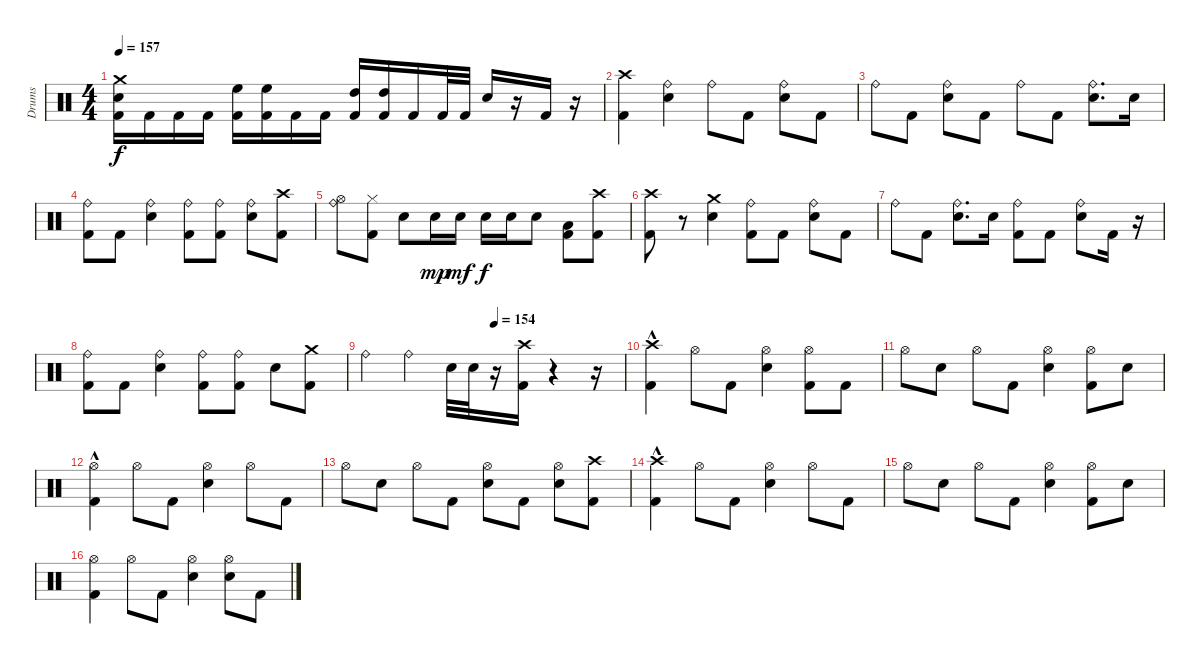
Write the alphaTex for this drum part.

\track ("Drums" "Drums") {instrument percussion}
\staff {score}
\articulation defaults
\ts (4 4)
\tempo 157
\clef neutral
\ks c
("Kick (hit) 2" "Electric Snare (hit)" "Crash medium (hit)").16{dy f} "Kick (hit) 2".16 "Kick (hit) 2".16 "Kick (hit) 2".16 ("Kick (hit) 2" "High Floor Tom (hit)").16 ("Kick (hit) 2" "High Floor Tom (hit)").16 "Kick (hit) 2".16 "Kick (hit) 2".16 ("Kick (hit) 2" "High Tom (hit)").16 ("Kick (hit) 2" "High Tom (hit)").16 "Kick (hit) 2".16 "Kick (hit) 2".32 "Kick (hit) 2".32 "Electric Snare (hit)".16 r.16 "Kick (hit) 2".16 r.16 |
("Kick (hit) 2" "Crash high (hit)").4 ("Electric Snare (hit)" "Ride (bell)").4 "Ride (bell)".8 "Kick (hit) 2".8 ("Electric Snare (hit)" "Ride (bell)").8 "Kick (hit) 2".8 |
"Ride (bell)".8 "Kick (hit) 2".8 ("Electric Snare (hit)" "Ride (bell)").8 "Kick (hit) 2".8 "Ride (bell)".8 "Kick (hit) 2".8 ("Electric Snare (hit)" "Ride (bell)").8{d} "Electric Snare (hit)".16 |
("Kick (hit) 2" "Ride (bell)").8 "Kick (hit) 2".8 ("Electric Snare (hit)" "Ride (bell)").4 ("Kick (hit) 2" "Ride (bell)").8 ("Kick (hit) 2" "Ride (bell)").8 ("Ride (bell)" "Electric Snare (hit)").8 ("Crash high (hit)" "Kick (hit) 2").8 |
("Ride (bell)" "Hi-Hat (open)").8 ("Kick (hit) 2" "Hi-Hat (closed)").8 "Electric Snare (hit)".8 "Electric Snare (hit)".16{dy mp} "Electric Snare (hit)".16{dy mf} "Electric Snare (hit)".16{dy f} "Electric Snare (hit)".16 "Electric Snare (hit)".8 ("Kick (hit) 2" "Low Tom (hit)").8 ("Kick (hit) 2" "Crash high (hit)").8 |
("Kick (hit) 2" "Crash high (hit)").8 r.8 ("Electric Snare (hit)" "Crash medium (hit)").4 ("Ride (bell)" "Kick (hit) 2").8 "Kick (hit) 2".8 ("Electric Snare (hit)" "Ride (bell)").8 "Kick (hit) 2".8 |
"Ride (bell)".8 "Kick (hit) 2".8 ("Electric Snare (hit)" "Ride (bell)").8{d} "Electric Snare (hit)".16 ("Ride (bell)" "Kick (hit) 2").8 "Kick (hit) 2".8 ("Electric Snare (hit)" "Ride (bell)").8 "Kick (hit) 2".16 r.16 |
("Kick (hit) 2" "Ride (bell)").8 "Kick (hit) 2".8 ("Electric Snare (hit)" "Ride (bell)").4 ("Kick (hit) 2" "Ride (bell)").8 ("Kick (hit) 2" "Ride (bell)").8 "Electric Snare (hit)".8 ("Kick (hit) 2" "Crash medium (hit)").8 |
\tempo (154 0.5)
"Ride (bell)".4 "Ride (bell)".4 "Electric Snare (hit)".32 "Electric Snare (hit)".32 r.16 ("Kick (hit) 2" "Crash high (hit)").16 r.4 r.16 |
("Crash high (hit)" "Kick (hit) 2"{hac}).4 "Hi-Hat (open)".8 "Kick (hit) 2".8 ("Hi-Hat (open)" "Electric Snare (hit)").4 ("Hi-Hat (open)" "Kick (hit) 2").8 "Kick (hit) 2".8 |
"Hi-Hat (open)".8 "Electric Snare (hit)".8 "Hi-Hat (open)".8 "Kick (hit) 2".8 ("Electric Snare (hit)" "Hi-Hat (open)").4 ("Hi-Hat (open)" "Kick (hit) 2").8 "Electric Snare (hit)".8 |
("Kick (hit) 2"{hac} "Hi-Hat (open)").4 "Hi-Hat (open)".8 "Kick (hit) 2".8 ("Hi-Hat (open)" "Electric Snare (hit)").4 "Hi-Hat (open)".8 "Kick (hit) 2".8 |
"Hi-Hat (open)".8 "Electric Snare (hit)".8 "Hi-Hat (open)".8 "Kick (hit) 2".8 ("Electric Snare (hit)" "Hi-Hat (open)").8 "Kick (hit) 2".8 ("Electric Snare (hit)" "Hi-Hat (open)").8 ("Kick (hit) 2" "Crash high (hit)").8 |
("Kick (hit) 2"{hac} "Crash high (hit)").4 "Hi-Hat (open)".8 "Kick (hit) 2".8 ("Electric Snare (hit)" "Hi-Hat (open)").4 "Hi-Hat (open)".8 "Kick (hit) 2".8 |
"Hi-Hat (open)".8 "Electric Snare (hit)".8 "Hi-Hat (open)".8 "Kick (hit) 2".8 ("Electric Snare (hit)" "Hi-Hat (open)").4 ("Kick (hit) 2" "Hi-Hat (open)").8 "Electric Snare (hit)".8 |
("Kick (hit) 2" "Hi-Hat (open)").4 "Hi-Hat (open)".8 "Kick (hit) 2".8 ("Electric Snare (hit)" "Hi-Hat (open)").4 ("Electric Snare (hit)" "Hi-Hat (open)").8 "Kick (hit) 2".8
